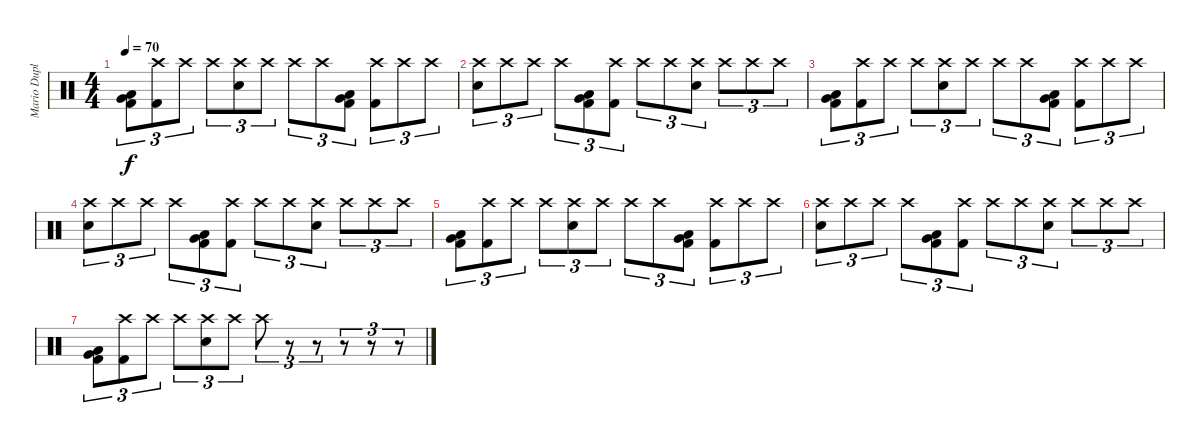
\track ("Mario Duplantier " "Mario Dupl") {instrument percussion}
\staff {score}
\articulation defaults
\ts (4 4)
\tempo 70
\clef neutral
\ks c
("Kick (hit) 2" "Very Low Tom (hit)" "Low Tom (hit)").8{tu (3 2) dy f} ("Crash high (hit)" "Kick (hit) 2").8{tu (3 2)} "Crash high (hit)".8{tu (3 2)} "Crash high (hit)".8{tu (3 2)} ("Crash high (hit)" "Electric Snare (hit)").8{tu (3 2)} "Crash high (hit)".8{tu (3 2)} "Crash high (hit)".8{tu (3 2)} "Crash high (hit)".8{tu (3 2)} ("Low Tom (hit)" "Kick (hit) 2" "Very Low Tom (hit)").8{tu (3 2)} ("Crash high (hit)" "Kick (hit) 2").8{tu (3 2)} "Crash high (hit)".8{tu (3 2)} "Crash high (hit)".8{tu (3 2)} |
("Crash high (hit)" "Electric Snare (hit)").8{tu (3 2)} "Crash high (hit)".8{tu (3 2)} "Crash high (hit)".8{tu (3 2)} "Crash high (hit)".8{tu (3 2)} ("Low Tom (hit)" "Very Low Tom (hit)" "Kick (hit) 2").8{tu (3 2)} ("Crash high (hit)" "Kick (hit) 2").8{tu (3 2)} "Crash high (hit)".8{tu (3 2)} "Crash high (hit)".8{tu (3 2)} ("Crash high (hit)" "Electric Snare (hit)").8{tu (3 2)} "Crash high (hit)".8{tu (3 2)} "Crash high (hit)".8{tu (3 2)} "Crash high (hit)".8{tu (3 2)} |
("Kick (hit) 2" "Very Low Tom (hit)" "Low Tom (hit)").8{tu (3 2)} ("Crash high (hit)" "Kick (hit) 2").8{tu (3 2)} "Crash high (hit)".8{tu (3 2)} "Crash high (hit)".8{tu (3 2)} ("Crash high (hit)" "Electric Snare (hit)").8{tu (3 2)} "Crash high (hit)".8{tu (3 2)} "Crash high (hit)".8{tu (3 2)} "Crash high (hit)".8{tu (3 2)} ("Low Tom (hit)" "Kick (hit) 2" "Very Low Tom (hit)").8{tu (3 2)} ("Crash high (hit)" "Kick (hit) 2").8{tu (3 2)} "Crash high (hit)".8{tu (3 2)} "Crash high (hit)".8{tu (3 2)} |
("Crash high (hit)" "Electric Snare (hit)").8{tu (3 2)} "Crash high (hit)".8{tu (3 2)} "Crash high (hit)".8{tu (3 2)} "Crash high (hit)".8{tu (3 2)} ("Low Tom (hit)" "Very Low Tom (hit)" "Kick (hit) 2").8{tu (3 2)} ("Crash high (hit)" "Kick (hit) 2").8{tu (3 2)} "Crash high (hit)".8{tu (3 2)} "Crash high (hit)".8{tu (3 2)} ("Crash high (hit)" "Electric Snare (hit)").8{tu (3 2)} "Crash high (hit)".8{tu (3 2)} "Crash high (hit)".8{tu (3 2)} "Crash high (hit)".8{tu (3 2)} |
("Kick (hit) 2" "Very Low Tom (hit)" "Low Tom (hit)").8{tu (3 2)} ("Crash high (hit)" "Kick (hit) 2").8{tu (3 2)} "Crash high (hit)".8{tu (3 2)} "Crash high (hit)".8{tu (3 2)} ("Crash high (hit)" "Electric Snare (hit)").8{tu (3 2)} "Crash high (hit)".8{tu (3 2)} "Crash high (hit)".8{tu (3 2)} "Crash high (hit)".8{tu (3 2)} ("Low Tom (hit)" "Kick (hit) 2" "Very Low Tom (hit)").8{tu (3 2)} ("Crash high (hit)" "Kick (hit) 2").8{tu (3 2)} "Crash high (hit)".8{tu (3 2)} "Crash high (hit)".8{tu (3 2)} |
("Crash high (hit)" "Electric Snare (hit)").8{tu (3 2)} "Crash high (hit)".8{tu (3 2)} "Crash high (hit)".8{tu (3 2)} "Crash high (hit)".8{tu (3 2)} ("Low Tom (hit)" "Very Low Tom (hit)" "Kick (hit) 2").8{tu (3 2)} ("Crash high (hit)" "Kick (hit) 2").8{tu (3 2)} "Crash high (hit)".8{tu (3 2)} "Crash high (hit)".8{tu (3 2)} ("Crash high (hit)" "Electric Snare (hit)").8{tu (3 2)} "Crash high (hit)".8{tu (3 2)} "Crash high (hit)".8{tu (3 2)} "Crash high (hit)".8{tu (3 2)} |
("Kick (hit) 2" "Very Low Tom (hit)" "Low Tom (hit)").8{tu (3 2)} ("Crash high (hit)" "Kick (hit) 2").8{tu (3 2)} "Crash high (hit)".8{tu (3 2)} "Crash high (hit)".8{tu (3 2)} ("Crash high (hit)" "Electric Snare (hit)").8{tu (3 2)} "Crash high (hit)".8{tu (3 2)} "Crash high (hit)".8{tu (3 2)} r.8{tu (3 2)} r.8{tu (3 2)} r.8{tu (3 2)} r.8{tu (3 2)} r.8{tu (3 2)}
